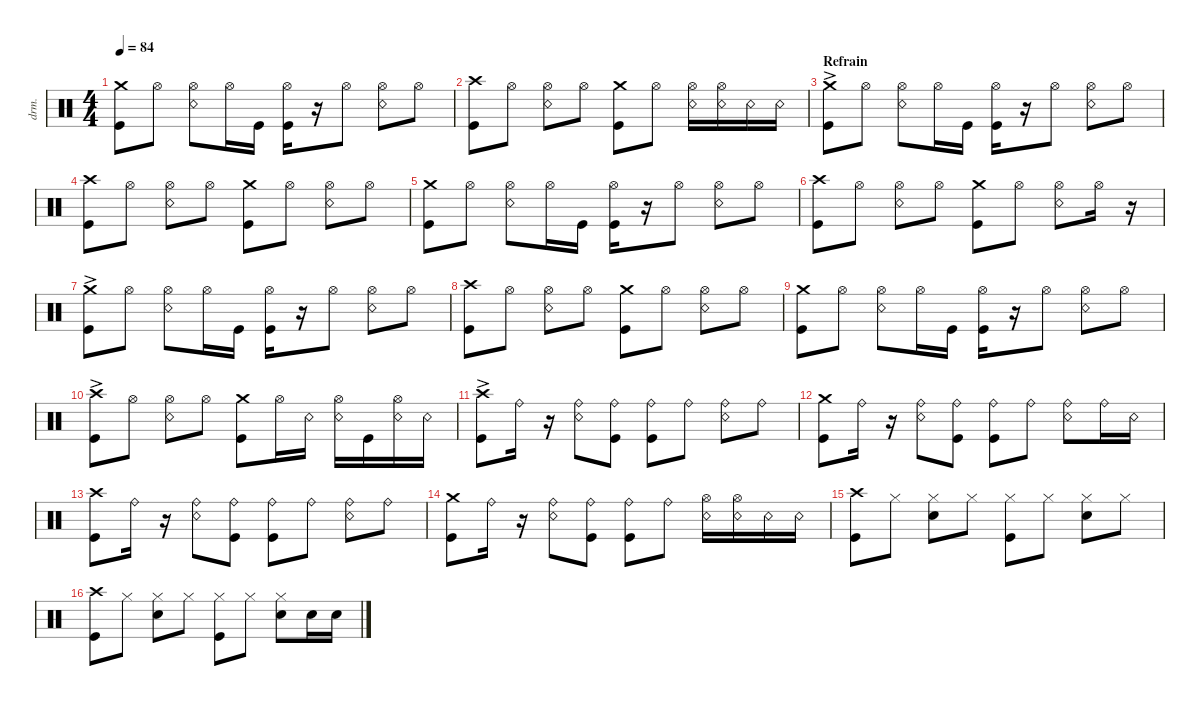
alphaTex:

\defaultSystemsLayout 4
\hideDynamics
\bracketExtendMode nobrackets
\otherSystemsTrackNameOrientation horizontal
\track ("Drumkit" "drm.") {instrument percussion}
\staff {score}
\articulation defaults
\ts (4 4)
\tempo 84
\clef neutral
\ks aminor
("Kick (hit)" "Crash medium (hit)").8{dy f beam Down} "Hi-Hat (open)".8{beam Down} ("Hi-Hat (open)" "Snare (rim shot)").8{beam Down} "Hi-Hat (open)".16{beam Down} "Kick (hit)".16{beam Down} ("Hi-Hat (open)" "Kick (hit)").16{beam Down} r.16{beam Down} "Hi-Hat (open)".8{beam Down} ("Hi-Hat (open)" "Snare (rim shot)").8{beam Down} "Hi-Hat (open)".8{beam Down} |
("Kick (hit)" "Crash high (hit)").8{beam Down} "Hi-Hat (open)".8{beam Down} ("Snare (rim shot)" "Hi-Hat (open)").8{beam Down} "Hi-Hat (open)".8{beam Down} ("Crash medium (hit)" "Kick (hit)").8{beam Down} "Hi-Hat (open)".8{beam Down} ("Hi-Hat (open)" "Snare (rim shot)").16{beam Down} ("Hi-Hat (open)" "Snare (rim shot)").16{beam Down} "Snare (rim shot)".16{beam Down} "Snare (rim shot)".16{beam Down} |
\section ("" "Refrain")
("Kick (hit)" "Crash medium (hit)"{ac}).8{beam Down} "Hi-Hat (open)".8{beam Down} ("Hi-Hat (open)" "Snare (rim shot)").8{beam Down} "Hi-Hat (open)".16{beam Down} "Kick (hit)".16{beam Down} ("Hi-Hat (open)" "Kick (hit)").16{beam Down} r.16{beam Down} "Hi-Hat (open)".8{beam Down} ("Hi-Hat (open)" "Snare (rim shot)").8{beam Down} "Hi-Hat (open)".8{beam Down} |
("Kick (hit)" "Crash high (hit)").8{beam Down} "Hi-Hat (open)".8{beam Down} ("Snare (rim shot)" "Hi-Hat (open)").8{beam Down} "Hi-Hat (open)".8{beam Down} ("Crash medium (hit)" "Kick (hit)").8{beam Down} "Hi-Hat (open)".8{beam Down} ("Hi-Hat (open)" "Snare (rim shot)").8{beam Down} "Hi-Hat (open)".8{beam Down} |
("Kick (hit)" "Crash medium (hit)").8{beam Down} "Hi-Hat (open)".8{beam Down} ("Hi-Hat (open)" "Snare (rim shot)").8{beam Down} "Hi-Hat (open)".16{beam Down} "Kick (hit)".16{beam Down} ("Hi-Hat (open)" "Kick (hit)").16{beam Down} r.16{beam Down} "Hi-Hat (open)".8{beam Down} ("Hi-Hat (open)" "Snare (rim shot)").8{beam Down} "Hi-Hat (open)".8{beam Down} |
("Kick (hit)" "Crash high (hit)").8{beam Down} "Hi-Hat (open)".8{beam Down} ("Snare (rim shot)" "Hi-Hat (open)").8{beam Down} "Hi-Hat (open)".8{beam Down} ("Crash medium (hit)" "Kick (hit)").8{beam Down} "Hi-Hat (open)".8{beam Down} ("Snare (rim shot)" "Hi-Hat (open)").8{beam Down} "Hi-Hat (open)".16{beam Down} r.16{beam Down} |
("Kick (hit)" "Crash medium (hit)"{ac}).8{beam Down} "Hi-Hat (open)".8{beam Down} ("Hi-Hat (open)" "Snare (rim shot)").8{beam Down} "Hi-Hat (open)".16{beam Down} "Kick (hit)".16{beam Down} ("Hi-Hat (open)" "Kick (hit)").16{beam Down} r.16{beam Down} "Hi-Hat (open)".8{beam Down} ("Hi-Hat (open)" "Snare (rim shot)").8{beam Down} "Hi-Hat (open)".8{beam Down} |
("Kick (hit)" "Crash high (hit)").8{beam Down} "Hi-Hat (open)".8{beam Down} ("Snare (rim shot)" "Hi-Hat (open)").8{beam Down} "Hi-Hat (open)".8{beam Down} ("Crash medium (hit)" "Kick (hit)").8{beam Down} "Hi-Hat (open)".8{beam Down} ("Hi-Hat (open)" "Snare (rim shot)").8{beam Down} "Hi-Hat (open)".8{beam Down} |
("Kick (hit)" "Crash medium (hit)").8{beam Down} "Hi-Hat (open)".8{beam Down} ("Hi-Hat (open)" "Snare (rim shot)").8{beam Down} "Hi-Hat (open)".16{beam Down} "Kick (hit)".16{beam Down} ("Hi-Hat (open)" "Kick (hit)").16{beam Down} r.16{beam Down} "Hi-Hat (open)".8{beam Down} ("Hi-Hat (open)" "Snare (rim shot)").8{beam Down} "Hi-Hat (open)".8{beam Down} |
("Kick (hit)" "Crash high (hit)"{ac}).8{beam Down} "Hi-Hat (open)".8{beam Down} ("Snare (rim shot)" "Hi-Hat (open)").8{beam Down} "Hi-Hat (open)".8{beam Down} ("Crash medium (hit)" "Kick (hit)").8{beam Down} "Hi-Hat (open)".16{beam Down} "Snare (rim shot)".16{beam Down} ("Hi-Hat (open)" "Snare (rim shot)").16{beam Down} "Kick (hit)".16{beam Down} ("Snare (rim shot)" "Hi-Hat (open)").16{beam Down} "Snare (rim shot)".16{beam Down} |
("Kick (hit)" "Crash high (hit)"{ac}).8{beam Down} "Ride (bell)".16{beam Down} r.16{beam Down} ("Ride (bell)" "Snare (rim shot)").8{beam Down} ("Ride (bell)" "Kick (hit)").8{beam Down} ("Ride (bell)" "Kick (hit)").8{beam Down} "Ride (bell)".8{beam Down} ("Ride (bell)" "Snare (rim shot)").8{beam Down} "Ride (bell)".8{beam Down} |
("Kick (hit)" "Crash medium (hit)").8{beam Down} "Ride (bell)".16{beam Down} r.16{beam Down} ("Ride (bell)" "Snare (rim shot)").8{beam Down} ("Ride (bell)" "Kick (hit)").8{beam Down} ("Ride (bell)" "Kick (hit)").8{beam Down} "Ride (bell)".8{beam Down} ("Ride (bell)" "Snare (rim shot)").8{beam Down} "Ride (bell)".16{beam Down} "Snare (rim shot)".16{beam Down} |
("Kick (hit)" "Crash high (hit)").8{beam Down} "Ride (bell)".16{beam Down} r.16{beam Down} ("Ride (bell)" "Snare (rim shot)").8{beam Down} ("Ride (bell)" "Kick (hit)").8{beam Down} ("Ride (bell)" "Kick (hit)").8{beam Down} "Ride (bell)".8{beam Down} ("Ride (bell)" "Snare (rim shot)").8{beam Down} "Ride (bell)".8{beam Down} |
("Kick (hit)" "Crash medium (hit)").8{beam Down} "Ride (bell)".16{beam Down} r.16{beam Down} ("Ride (bell)" "Snare (rim shot)").8{beam Down} ("Ride (bell)" "Kick (hit)").8{beam Down} ("Ride (bell)" "Kick (hit)").8{beam Down} "Ride (bell)".8{beam Down} ("Hi-Hat (open)" "Snare (rim shot)").16{beam Down} ("Hi-Hat (open)" "Snare (rim shot)").16{beam Down} "Snare (rim shot)".16{beam Down} "Snare (rim shot)".16{beam Down} |
("Kick (hit)" "Crash high (hit)").8{beam Down} "Hi-Hat (closed)".8{beam Down} ("Hi-Hat (closed)" "Snare (hit) 2").8{beam Down} "Hi-Hat (closed)".8{beam Down} ("Hi-Hat (closed)" "Kick (hit)").8{beam Down} "Hi-Hat (closed)".8{beam Down} ("Hi-Hat (closed)" "Snare (hit) 2").8{beam Down} "Hi-Hat (closed)".8{beam Down} |
("Kick (hit)" "Crash high (hit)").8{dy mf beam Down} "Hi-Hat (closed)".8{dy ff beam Down} ("Hi-Hat (closed)" "Snare (hit) 2").8{beam Down} "Hi-Hat (closed)".8{beam Down} ("Hi-Hat (closed)" "Kick (hit)").8{beam Down} "Hi-Hat (closed)".8{beam Down} ("Hi-Hat (closed)" "Snare (hit) 2").8{beam Down} "Snare (hit) 2".16{beam Down} "Snare (hit) 2".16{beam Down}
